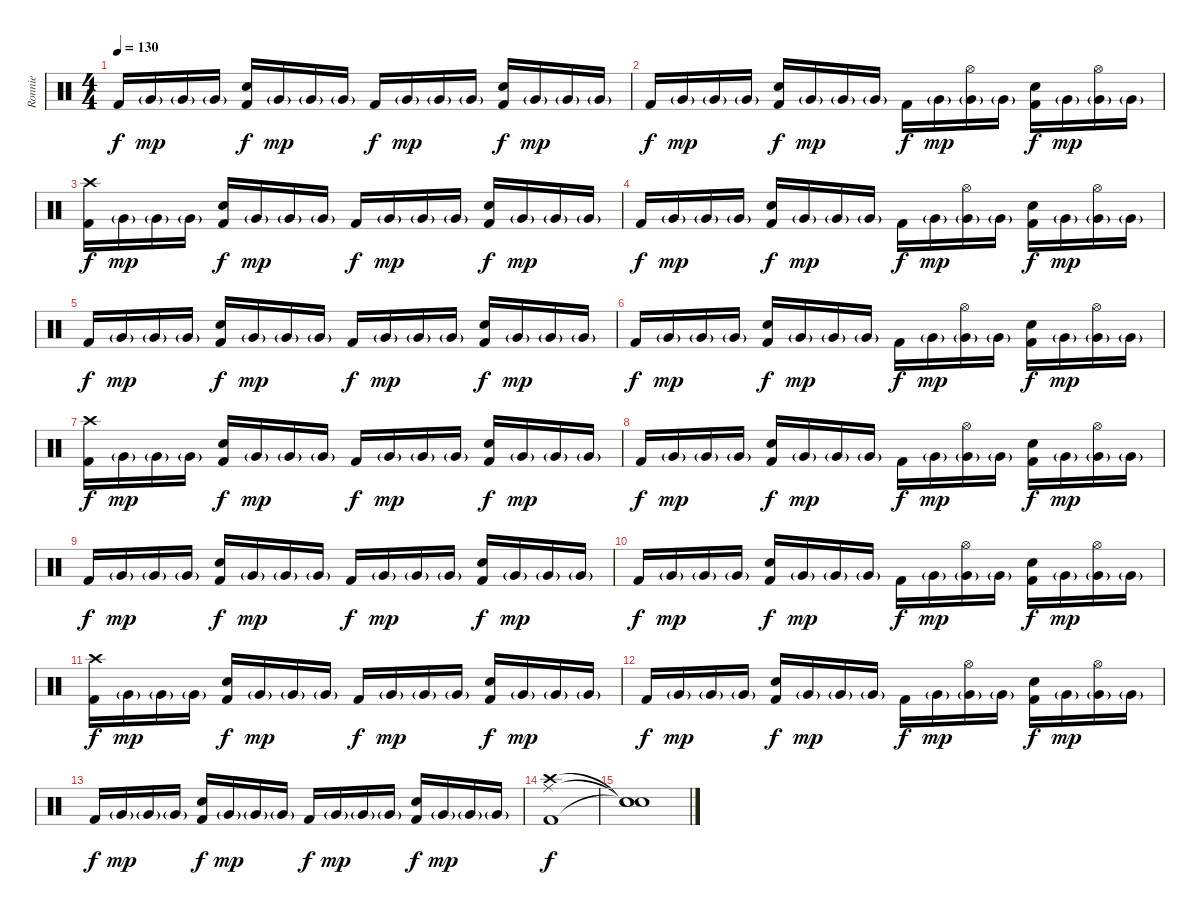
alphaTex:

\track ("Ronnie" "Ronnie") {instrument percussion}
\staff {score}
\articulation defaults
\ts (4 4)
\tempo 130
\clef neutral
\ks c "Kick (hit) 2".16{dy f} "Very Low Tom (hit)"{g}.16{dy mp} "Very Low Tom (hit)"{g}.16 "Very Low Tom (hit)"{g}.16
("Electric Snare (hit)" "Kick (hit) 2").16{dy f} "Very Low Tom (hit)"{g}.16{dy mp} "Very Low Tom (hit)"{g}.16 "Very Low Tom (hit)"{g}.16 "Kick (hit) 2".16{dy f} "Very Low Tom (hit)"{g}.16{dy mp} "Very Low Tom (hit)"{g}.16 "Very Low Tom (hit)"{g}.16 ("Electric Snare (hit)" "Kick (hit) 2").16{dy f} "Very Low Tom (hit)"{g}.16{dy mp} "Very Low Tom (hit)"{g}.16 "Very Low Tom (hit)"{g}.16 |
"Kick (hit) 2".16{dy f} "Very Low Tom (hit)"{g}.16{dy mp} "Very Low Tom (hit)"{g}.16 "Very Low Tom (hit)"{g}.16 ("Electric Snare (hit)" "Kick (hit) 2").16{dy f} "Very Low Tom (hit)"{g}.16{dy mp} "Very Low Tom (hit)"{g}.16 "Very Low Tom (hit)"{g}.16 "Kick (hit) 2".16{dy f} "Very Low Tom (hit)"{g}.16{dy mp} ("Very Low Tom (hit)"{g} "Hi-Hat (open)").16 "Very Low Tom (hit)"{g}.16 ("Electric Snare (hit)" "Kick (hit) 2").16{dy f} "Very Low Tom (hit)"{g}.16{dy mp} ("Very Low Tom (hit)"{g} "Hi-Hat (open)").16 "Very Low Tom (hit)"{g}.16 |
("Kick (hit) 2" "Crash high (hit)").16{dy f} "Very Low Tom (hit)"{g}.16{dy mp} "Very Low Tom (hit)"{g}.16 "Very Low Tom (hit)"{g}.16 ("Electric Snare (hit)" "Kick (hit) 2").16{dy f} "Very Low Tom (hit)"{g}.16{dy mp} "Very Low Tom (hit)"{g}.16 "Very Low Tom (hit)"{g}.16 "Kick (hit) 2".16{dy f} "Very Low Tom (hit)"{g}.16{dy mp} "Very Low Tom (hit)"{g}.16 "Very Low Tom (hit)"{g}.16 ("Electric Snare (hit)" "Kick (hit) 2").16{dy f} "Very Low Tom (hit)"{g}.16{dy mp} "Very Low Tom (hit)"{g}.16 "Very Low Tom (hit)"{g}.16 |
"Kick (hit) 2".16{dy f} "Very Low Tom (hit)"{g}.16{dy mp} "Very Low Tom (hit)"{g}.16 "Very Low Tom (hit)"{g}.16 ("Electric Snare (hit)" "Kick (hit) 2").16{dy f} "Very Low Tom (hit)"{g}.16{dy mp} "Very Low Tom (hit)"{g}.16 "Very Low Tom (hit)"{g}.16 "Kick (hit) 2".16{dy f} "Very Low Tom (hit)"{g}.16{dy mp} ("Very Low Tom (hit)"{g} "Hi-Hat (open)").16 "Very Low Tom (hit)"{g}.16 ("Electric Snare (hit)" "Kick (hit) 2").16{dy f} "Very Low Tom (hit)"{g}.16{dy mp} ("Very Low Tom (hit)"{g} "Hi-Hat (open)").16 "Very Low Tom (hit)"{g}.16 |
"Kick (hit) 2".16{dy f} "Very Low Tom (hit)"{g}.16{dy mp} "Very Low Tom (hit)"{g}.16 "Very Low Tom (hit)"{g}.16 ("Electric Snare (hit)" "Kick (hit) 2").16{dy f} "Very Low Tom (hit)"{g}.16{dy mp} "Very Low Tom (hit)"{g}.16 "Very Low Tom (hit)"{g}.16 "Kick (hit) 2".16{dy f} "Very Low Tom (hit)"{g}.16{dy mp} "Very Low Tom (hit)"{g}.16 "Very Low Tom (hit)"{g}.16 ("Electric Snare (hit)" "Kick (hit) 2").16{dy f} "Very Low Tom (hit)"{g}.16{dy mp} "Very Low Tom (hit)"{g}.16 "Very Low Tom (hit)"{g}.16 |
"Kick (hit) 2".16{dy f} "Very Low Tom (hit)"{g}.16{dy mp} "Very Low Tom (hit)"{g}.16 "Very Low Tom (hit)"{g}.16 ("Electric Snare (hit)" "Kick (hit) 2").16{dy f} "Very Low Tom (hit)"{g}.16{dy mp} "Very Low Tom (hit)"{g}.16 "Very Low Tom (hit)"{g}.16 "Kick (hit) 2".16{dy f} "Very Low Tom (hit)"{g}.16{dy mp} ("Very Low Tom (hit)"{g} "Hi-Hat (open)").16 "Very Low Tom (hit)"{g}.16 ("Electric Snare (hit)" "Kick (hit) 2").16{dy f} "Very Low Tom (hit)"{g}.16{dy mp} ("Very Low Tom (hit)"{g} "Hi-Hat (open)").16 "Very Low Tom (hit)"{g}.16 |
("Kick (hit) 2" "Crash high (hit)").16{dy f} "Very Low Tom (hit)"{g}.16{dy mp} "Very Low Tom (hit)"{g}.16 "Very Low Tom (hit)"{g}.16 ("Electric Snare (hit)" "Kick (hit) 2").16{dy f} "Very Low Tom (hit)"{g}.16{dy mp} "Very Low Tom (hit)"{g}.16 "Very Low Tom (hit)"{g}.16 "Kick (hit) 2".16{dy f} "Very Low Tom (hit)"{g}.16{dy mp} "Very Low Tom (hit)"{g}.16 "Very Low Tom (hit)"{g}.16 ("Electric Snare (hit)" "Kick (hit) 2").16{dy f} "Very Low Tom (hit)"{g}.16{dy mp} "Very Low Tom (hit)"{g}.16 "Very Low Tom (hit)"{g}.16 |
"Kick (hit) 2".16{dy f} "Very Low Tom (hit)"{g}.16{dy mp} "Very Low Tom (hit)"{g}.16 "Very Low Tom (hit)"{g}.16 ("Electric Snare (hit)" "Kick (hit) 2").16{dy f} "Very Low Tom (hit)"{g}.16{dy mp} "Very Low Tom (hit)"{g}.16 "Very Low Tom (hit)"{g}.16 "Kick (hit) 2".16{dy f} "Very Low Tom (hit)"{g}.16{dy mp} ("Very Low Tom (hit)"{g} "Hi-Hat (open)").16 "Very Low Tom (hit)"{g}.16 ("Electric Snare (hit)" "Kick (hit) 2").16{dy f} "Very Low Tom (hit)"{g}.16{dy mp} ("Very Low Tom (hit)"{g} "Hi-Hat (open)").16 "Very Low Tom (hit)"{g}.16 |
"Kick (hit) 2".16{dy f} "Very Low Tom (hit)"{g}.16{dy mp} "Very Low Tom (hit)"{g}.16 "Very Low Tom (hit)"{g}.16 ("Electric Snare (hit)" "Kick (hit) 2").16{dy f} "Very Low Tom (hit)"{g}.16{dy mp} "Very Low Tom (hit)"{g}.16 "Very Low Tom (hit)"{g}.16 "Kick (hit) 2".16{dy f} "Very Low Tom (hit)"{g}.16{dy mp} "Very Low Tom (hit)"{g}.16 "Very Low Tom (hit)"{g}.16 ("Electric Snare (hit)" "Kick (hit) 2").16{dy f} "Very Low Tom (hit)"{g}.16{dy mp} "Very Low Tom (hit)"{g}.16 "Very Low Tom (hit)"{g}.16 |
"Kick (hit) 2".16{dy f} "Very Low Tom (hit)"{g}.16{dy mp} "Very Low Tom (hit)"{g}.16 "Very Low Tom (hit)"{g}.16 ("Electric Snare (hit)" "Kick (hit) 2").16{dy f} "Very Low Tom (hit)"{g}.16{dy mp} "Very Low Tom (hit)"{g}.16 "Very Low Tom (hit)"{g}.16 "Kick (hit) 2".16{dy f} "Very Low Tom (hit)"{g}.16{dy mp} ("Very Low Tom (hit)"{g} "Hi-Hat (open)").16 "Very Low Tom (hit)"{g}.16 ("Electric Snare (hit)" "Kick (hit) 2").16{dy f} "Very Low Tom (hit)"{g}.16{dy mp} ("Very Low Tom (hit)"{g} "Hi-Hat (open)").16 "Very Low Tom (hit)"{g}.16 |
("Kick (hit) 2" "Crash high (hit)").16{dy f} "Very Low Tom (hit)"{g}.16{dy mp} "Very Low Tom (hit)"{g}.16 "Very Low Tom (hit)"{g}.16 ("Electric Snare (hit)" "Kick (hit) 2").16{dy f} "Very Low Tom (hit)"{g}.16{dy mp} "Very Low Tom (hit)"{g}.16 "Very Low Tom (hit)"{g}.16 "Kick (hit) 2".16{dy f} "Very Low Tom (hit)"{g}.16{dy mp} "Very Low Tom (hit)"{g}.16 "Very Low Tom (hit)"{g}.16 ("Electric Snare (hit)" "Kick (hit) 2").16{dy f} "Very Low Tom (hit)"{g}.16{dy mp} "Very Low Tom (hit)"{g}.16 "Very Low Tom (hit)"{g}.16 |
"Kick (hit) 2".16{dy f} "Very Low Tom (hit)"{g}.16{dy mp} "Very Low Tom (hit)"{g}.16 "Very Low Tom (hit)"{g}.16 ("Electric Snare (hit)" "Kick (hit) 2").16{dy f} "Very Low Tom (hit)"{g}.16{dy mp} "Very Low Tom (hit)"{g}.16 "Very Low Tom (hit)"{g}.16 "Kick (hit) 2".16{dy f} "Very Low Tom (hit)"{g}.16{dy mp} ("Very Low Tom (hit)"{g} "Hi-Hat (open)").16 "Very Low Tom (hit)"{g}.16 ("Electric Snare (hit)" "Kick (hit) 2").16{dy f} "Very Low Tom (hit)"{g}.16{dy mp} ("Very Low Tom (hit)"{g} "Hi-Hat (open)").16 "Very Low Tom (hit)"{g}.16 |
"Kick (hit) 2".16{dy f} "Very Low Tom (hit)"{g}.16{dy mp} "Very Low Tom (hit)"{g}.16 "Very Low Tom (hit)"{g}.16 ("Electric Snare (hit)" "Kick (hit) 2").16{dy f} "Very Low Tom (hit)"{g}.16{dy mp} "Very Low Tom (hit)"{g}.16 "Very Low Tom (hit)"{g}.16 "Kick (hit) 2".16{dy f} "Very Low Tom (hit)"{g}.16{dy mp} "Very Low Tom (hit)"{g}.16 "Very Low Tom (hit)"{g}.16 ("Electric Snare (hit)" "Kick (hit) 2").16{dy f} "Very Low Tom (hit)"{g}.16{dy mp} "Very Low Tom (hit)"{g}.16 "Very Low Tom (hit)"{g}.16 |
("Crash high (hit)" "Kick (hit) 2" "Ride (middle)").1{dy f} |
("Snare (hit)"{t} "Snare (hit)"{t} "Snare (hit)"{t}).1
